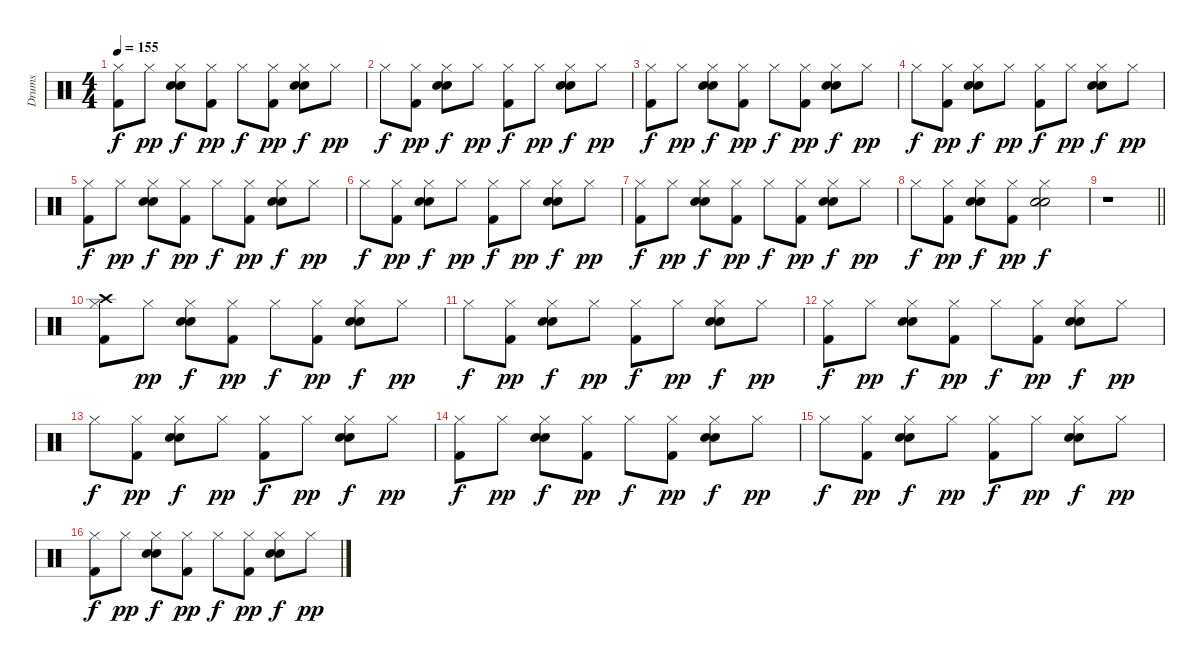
\track ("Drums" "Drums") {instrument percussion}
\staff {score}
\articulation defaults
\ts (4 4)
\section ("" "")
\tempo 155
\clef neutral
\ks c
("Hi-Hat (closed)" "Kick (hit) 2").8{dy f} "Hi-Hat (closed)".8{dy pp} ("Hi-Hat (closed)" "Snare (hit) 2" "Electric Snare (hit)").8{dy f} ("Hi-Hat (closed)" "Kick (hit) 2").8{dy pp} "Hi-Hat (closed)".8{dy f} ("Hi-Hat (closed)" "Kick (hit) 2").8{dy pp} ("Hi-Hat (closed)" "Snare (hit) 2" "Electric Snare (hit)").8{dy f} "Hi-Hat (closed)".8{dy pp} |
"Hi-Hat (closed)".8{dy f} ("Hi-Hat (closed)" "Kick (hit) 2").8{dy pp} ("Hi-Hat (closed)" "Snare (hit) 2" "Electric Snare (hit)").8{dy f} "Hi-Hat (closed)".8{dy pp} ("Hi-Hat (closed)" "Kick (hit) 2").8{dy f} "Hi-Hat (closed)".8{dy pp} ("Hi-Hat (closed)" "Snare (hit) 2" "Electric Snare (hit)").8{dy f} "Hi-Hat (closed)".8{dy pp} |
("Hi-Hat (closed)" "Kick (hit) 2").8{dy f} "Hi-Hat (closed)".8{dy pp} ("Hi-Hat (closed)" "Snare (hit) 2" "Electric Snare (hit)").8{dy f} ("Hi-Hat (closed)" "Kick (hit) 2").8{dy pp} "Hi-Hat (closed)".8{dy f} ("Hi-Hat (closed)" "Kick (hit) 2").8{dy pp} ("Hi-Hat (closed)" "Snare (hit) 2" "Electric Snare (hit)").8{dy f} "Hi-Hat (closed)".8{dy pp} |
"Hi-Hat (closed)".8{dy f} ("Hi-Hat (closed)" "Kick (hit) 2").8{dy pp} ("Hi-Hat (closed)" "Snare (hit) 2" "Electric Snare (hit)").8{dy f} "Hi-Hat (closed)".8{dy pp} ("Hi-Hat (closed)" "Kick (hit) 2").8{dy f} "Hi-Hat (closed)".8{dy pp} ("Hi-Hat (closed)" "Snare (hit) 2" "Electric Snare (hit)").8{dy f} "Hi-Hat (closed)".8{dy pp} |
("Hi-Hat (closed)" "Kick (hit) 2").8{dy f} "Hi-Hat (closed)".8{dy pp} ("Hi-Hat (closed)" "Snare (hit) 2" "Electric Snare (hit)").8{dy f} ("Hi-Hat (closed)" "Kick (hit) 2").8{dy pp} "Hi-Hat (closed)".8{dy f} ("Hi-Hat (closed)" "Kick (hit) 2").8{dy pp} ("Hi-Hat (closed)" "Snare (hit) 2" "Electric Snare (hit)").8{dy f} "Hi-Hat (closed)".8{dy pp} |
"Hi-Hat (closed)".8{dy f} ("Hi-Hat (closed)" "Kick (hit) 2").8{dy pp} ("Hi-Hat (closed)" "Snare (hit) 2" "Electric Snare (hit)").8{dy f} "Hi-Hat (closed)".8{dy pp} ("Hi-Hat (closed)" "Kick (hit) 2").8{dy f} "Hi-Hat (closed)".8{dy pp} ("Hi-Hat (closed)" "Snare (hit) 2" "Electric Snare (hit)").8{dy f} "Hi-Hat (closed)".8{dy pp} |
("Hi-Hat (closed)" "Kick (hit) 2").8{dy f} "Hi-Hat (closed)".8{dy pp} ("Hi-Hat (closed)" "Snare (hit) 2" "Electric Snare (hit)").8{dy f} ("Hi-Hat (closed)" "Kick (hit) 2").8{dy pp} "Hi-Hat (closed)".8{dy f} ("Hi-Hat (closed)" "Kick (hit) 2").8{dy pp} ("Hi-Hat (closed)" "Snare (hit) 2" "Electric Snare (hit)").8{dy f} "Hi-Hat (closed)".8{dy pp} |
"Hi-Hat (closed)".8{dy f} ("Hi-Hat (closed)" "Kick (hit) 2").8{dy pp} ("Hi-Hat (closed)" "Snare (hit) 2" "Electric Snare (hit)").8{dy f} ("Hi-Hat (closed)" "Kick (hit) 2").8{dy pp} ("Hi-Hat (closed)" "Snare (hit) 2" "Electric Snare (hit)").2{dy f} |
\barLineRight lightlight
r.1 |
\section ("" "")
("Hi-Hat (closed)" "Crash high (hit)" "Kick (hit) 2").8 "Hi-Hat (closed)".8{dy pp} ("Hi-Hat (closed)" "Snare (hit) 2" "Electric Snare (hit)").8{dy f} ("Hi-Hat (closed)" "Kick (hit) 2").8{dy pp} "Hi-Hat (closed)".8{dy f} ("Hi-Hat (closed)" "Kick (hit) 2").8{dy pp} ("Hi-Hat (closed)" "Snare (hit) 2" "Electric Snare (hit)").8{dy f} "Hi-Hat (closed)".8{dy pp} |
"Hi-Hat (closed)".8{dy f} ("Hi-Hat (closed)" "Kick (hit) 2").8{dy pp} ("Hi-Hat (closed)" "Snare (hit) 2" "Electric Snare (hit)").8{dy f} "Hi-Hat (closed)".8{dy pp} ("Hi-Hat (closed)" "Kick (hit) 2").8{dy f} "Hi-Hat (closed)".8{dy pp} ("Hi-Hat (closed)" "Snare (hit) 2" "Electric Snare (hit)").8{dy f} "Hi-Hat (closed)".8{dy pp} |
("Hi-Hat (closed)" "Kick (hit) 2").8{dy f} "Hi-Hat (closed)".8{dy pp} ("Hi-Hat (closed)" "Snare (hit) 2" "Electric Snare (hit)").8{dy f} ("Hi-Hat (closed)" "Kick (hit) 2").8{dy pp} "Hi-Hat (closed)".8{dy f} ("Hi-Hat (closed)" "Kick (hit) 2").8{dy pp} ("Hi-Hat (closed)" "Snare (hit) 2" "Electric Snare (hit)").8{dy f} "Hi-Hat (closed)".8{dy pp} |
"Hi-Hat (closed)".8{dy f} ("Hi-Hat (closed)" "Kick (hit) 2").8{dy pp} ("Hi-Hat (closed)" "Snare (hit) 2" "Electric Snare (hit)").8{dy f} "Hi-Hat (closed)".8{dy pp} ("Hi-Hat (closed)" "Kick (hit) 2").8{dy f} "Hi-Hat (closed)".8{dy pp} ("Hi-Hat (closed)" "Snare (hit) 2" "Electric Snare (hit)").8{dy f} "Hi-Hat (closed)".8{dy pp} |
("Hi-Hat (closed)" "Kick (hit) 2").8{dy f} "Hi-Hat (closed)".8{dy pp} ("Hi-Hat (closed)" "Snare (hit) 2" "Electric Snare (hit)").8{dy f} ("Hi-Hat (closed)" "Kick (hit) 2").8{dy pp} "Hi-Hat (closed)".8{dy f} ("Hi-Hat (closed)" "Kick (hit) 2").8{dy pp} ("Hi-Hat (closed)" "Snare (hit) 2" "Electric Snare (hit)").8{dy f} "Hi-Hat (closed)".8{dy pp} |
"Hi-Hat (closed)".8{dy f} ("Hi-Hat (closed)" "Kick (hit) 2").8{dy pp} ("Hi-Hat (closed)" "Snare (hit) 2" "Electric Snare (hit)").8{dy f} "Hi-Hat (closed)".8{dy pp} ("Hi-Hat (closed)" "Kick (hit) 2").8{dy f} "Hi-Hat (closed)".8{dy pp} ("Hi-Hat (closed)" "Snare (hit) 2" "Electric Snare (hit)").8{dy f} "Hi-Hat (closed)".8{dy pp} |
("Hi-Hat (closed)" "Kick (hit) 2").8{dy f} "Hi-Hat (closed)".8{dy pp} ("Hi-Hat (closed)" "Snare (hit) 2" "Electric Snare (hit)").8{dy f} ("Hi-Hat (closed)" "Kick (hit) 2").8{dy pp} "Hi-Hat (closed)".8{dy f} ("Hi-Hat (closed)" "Kick (hit) 2").8{dy pp} ("Hi-Hat (closed)" "Snare (hit) 2" "Electric Snare (hit)").8{dy f} "Hi-Hat (closed)".8{dy pp}
